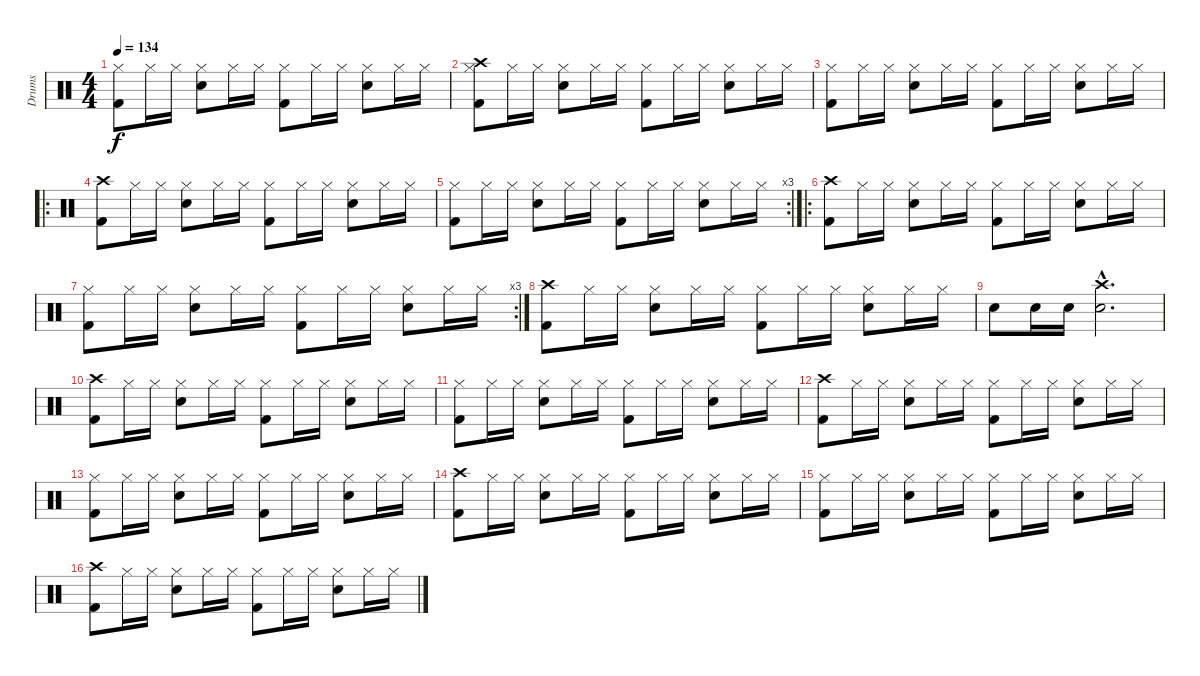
\track ("Drums" "Drums") {instrument percussion}
\staff {score}
\articulation defaults
\ts (4 4)
\tempo 134
\clef neutral
\ks c
("Kick (hit) 2" "Hi-Hat (closed)").8{dy f} "Hi-Hat (closed)".16 "Hi-Hat (closed)".16 ("Snare (hit) 2" "Hi-Hat (closed)").8 "Hi-Hat (closed)".16 "Hi-Hat (closed)".16 ("Kick (hit) 2" "Hi-Hat (closed)").8 "Hi-Hat (closed)".16 "Hi-Hat (closed)".16 ("Snare (hit) 2" "Hi-Hat (closed)").8 "Hi-Hat (closed)".16 "Hi-Hat (closed)".16 |
("Kick (hit) 2" "Hi-Hat (closed)" "Crash high (hit)").8 "Hi-Hat (closed)".16 "Hi-Hat (closed)".16 ("Snare (hit) 2" "Hi-Hat (closed)").8 "Hi-Hat (closed)".16 "Hi-Hat (closed)".16 ("Kick (hit) 2" "Hi-Hat (closed)").8 "Hi-Hat (closed)".16 "Hi-Hat (closed)".16 ("Snare (hit) 2" "Hi-Hat (closed)").8 "Hi-Hat (closed)".16 "Hi-Hat (closed)".16 |
("Kick (hit) 2" "Hi-Hat (closed)").8 "Hi-Hat (closed)".16 "Hi-Hat (closed)".16 ("Snare (hit) 2" "Hi-Hat (closed)").8 "Hi-Hat (closed)".16 "Hi-Hat (closed)".16 ("Kick (hit) 2" "Hi-Hat (closed)").8 "Hi-Hat (closed)".16 "Hi-Hat (closed)".16 ("Snare (hit) 2" "Hi-Hat (closed)").8 "Hi-Hat (closed)".16 "Hi-Hat (closed)".16 |
\ro
("Kick (hit) 2" "Crash high (hit)").8 "Hi-Hat (closed)".16 "Hi-Hat (closed)".16 ("Snare (hit) 2" "Hi-Hat (closed)").8 "Hi-Hat (closed)".16 "Hi-Hat (closed)".16 ("Kick (hit) 2" "Hi-Hat (closed)").8 "Hi-Hat (closed)".16 "Hi-Hat (closed)".16 ("Snare (hit) 2" "Hi-Hat (closed)").8 "Hi-Hat (closed)".16 "Hi-Hat (closed)".16 |
\rc 3
("Kick (hit) 2" "Hi-Hat (closed)").8 "Hi-Hat (closed)".16 "Hi-Hat (closed)".16 ("Snare (hit) 2" "Hi-Hat (closed)").8 "Hi-Hat (closed)".16 "Hi-Hat (closed)".16 ("Kick (hit) 2" "Hi-Hat (closed)").8 "Hi-Hat (closed)".16 "Hi-Hat (closed)".16 ("Snare (hit) 2" "Hi-Hat (closed)").8 "Hi-Hat (closed)".16 "Hi-Hat (closed)".16 |
\ro
("Kick (hit) 2" "Crash high (hit)").8 "Hi-Hat (closed)".16 "Hi-Hat (closed)".16 ("Snare (hit) 2" "Hi-Hat (closed)").8 "Hi-Hat (closed)".16 "Hi-Hat (closed)".16 ("Kick (hit) 2" "Hi-Hat (closed)").8 "Hi-Hat (closed)".16 "Hi-Hat (closed)".16 ("Snare (hit) 2" "Hi-Hat (closed)").8 "Hi-Hat (closed)".16 "Hi-Hat (closed)".16 |
\rc 3
("Kick (hit) 2" "Hi-Hat (closed)").8 "Hi-Hat (closed)".16 "Hi-Hat (closed)".16 ("Snare (hit) 2" "Hi-Hat (closed)").8 "Hi-Hat (closed)".16 "Hi-Hat (closed)".16 ("Kick (hit) 2" "Hi-Hat (closed)").8 "Hi-Hat (closed)".16 "Hi-Hat (closed)".16 ("Snare (hit) 2" "Hi-Hat (closed)").8 "Hi-Hat (closed)".16 "Hi-Hat (closed)".16 |
("Kick (hit) 2" "Crash high (hit)").8 "Hi-Hat (closed)".16 "Hi-Hat (closed)".16 ("Snare (hit) 2" "Hi-Hat (closed)").8 "Hi-Hat (closed)".16 "Hi-Hat (closed)".16 ("Kick (hit) 2" "Hi-Hat (closed)").8 "Hi-Hat (closed)".16 "Hi-Hat (closed)".16 ("Snare (hit) 2" "Hi-Hat (closed)").8 "Hi-Hat (closed)".16 "Hi-Hat (closed)".16 |
"Snare (hit) 2".8 "Snare (hit) 2".16 "Snare (hit) 2".16 ("Snare (hit) 2"{hac} "Crash high (hit)"{hac}).2{d} |
("Kick (hit) 2" "Crash high (hit)").8 "Hi-Hat (closed)".16 "Hi-Hat (closed)".16 ("Snare (hit) 2" "Hi-Hat (closed)").8 "Hi-Hat (closed)".16 "Hi-Hat (closed)".16 ("Kick (hit) 2" "Hi-Hat (closed)").8 "Hi-Hat (closed)".16 "Hi-Hat (closed)".16 ("Snare (hit) 2" "Hi-Hat (closed)").8 "Hi-Hat (closed)".16 "Hi-Hat (closed)".16 |
("Kick (hit) 2" "Hi-Hat (closed)").8 "Hi-Hat (closed)".16 "Hi-Hat (closed)".16 ("Snare (hit) 2" "Hi-Hat (closed)").8 "Hi-Hat (closed)".16 "Hi-Hat (closed)".16 ("Kick (hit) 2" "Hi-Hat (closed)").8 "Hi-Hat (closed)".16 "Hi-Hat (closed)".16 ("Snare (hit) 2" "Hi-Hat (closed)").8 "Hi-Hat (closed)".16 "Hi-Hat (closed)".16 |
("Kick (hit) 2" "Crash high (hit)").8 "Hi-Hat (closed)".16 "Hi-Hat (closed)".16 ("Snare (hit) 2" "Hi-Hat (closed)").8 "Hi-Hat (closed)".16 "Hi-Hat (closed)".16 ("Kick (hit) 2" "Hi-Hat (closed)").8 "Hi-Hat (closed)".16 "Hi-Hat (closed)".16 ("Snare (hit) 2" "Hi-Hat (closed)").8 "Hi-Hat (closed)".16 "Hi-Hat (closed)".16 |
("Kick (hit) 2" "Hi-Hat (closed)").8 "Hi-Hat (closed)".16 "Hi-Hat (closed)".16 ("Snare (hit) 2" "Hi-Hat (closed)").8 "Hi-Hat (closed)".16 "Hi-Hat (closed)".16 ("Kick (hit) 2" "Hi-Hat (closed)").8 "Hi-Hat (closed)".16 "Hi-Hat (closed)".16 ("Snare (hit) 2" "Hi-Hat (closed)").8 "Hi-Hat (closed)".16 "Hi-Hat (closed)".16 |
("Kick (hit) 2" "Crash high (hit)").8 "Hi-Hat (closed)".16 "Hi-Hat (closed)".16 ("Snare (hit) 2" "Hi-Hat (closed)").8 "Hi-Hat (closed)".16 "Hi-Hat (closed)".16 ("Kick (hit) 2" "Hi-Hat (closed)").8 "Hi-Hat (closed)".16 "Hi-Hat (closed)".16 ("Snare (hit) 2" "Hi-Hat (closed)").8 "Hi-Hat (closed)".16 "Hi-Hat (closed)".16 |
("Kick (hit) 2" "Hi-Hat (closed)").8 "Hi-Hat (closed)".16 "Hi-Hat (closed)".16 ("Snare (hit) 2" "Hi-Hat (closed)").8 "Hi-Hat (closed)".16 "Hi-Hat (closed)".16 ("Kick (hit) 2" "Hi-Hat (closed)").8 "Hi-Hat (closed)".16 "Hi-Hat (closed)".16 ("Snare (hit) 2" "Hi-Hat (closed)").8 "Hi-Hat (closed)".16 "Hi-Hat (closed)".16 |
("Kick (hit) 2" "Crash high (hit)").8 "Hi-Hat (closed)".16 "Hi-Hat (closed)".16 ("Snare (hit) 2" "Hi-Hat (closed)").8 "Hi-Hat (closed)".16 "Hi-Hat (closed)".16 ("Kick (hit) 2" "Hi-Hat (closed)").8 "Hi-Hat (closed)".16 "Hi-Hat (closed)".16 ("Snare (hit) 2" "Hi-Hat (closed)").8 "Hi-Hat (closed)".16 "Hi-Hat (closed)".16
